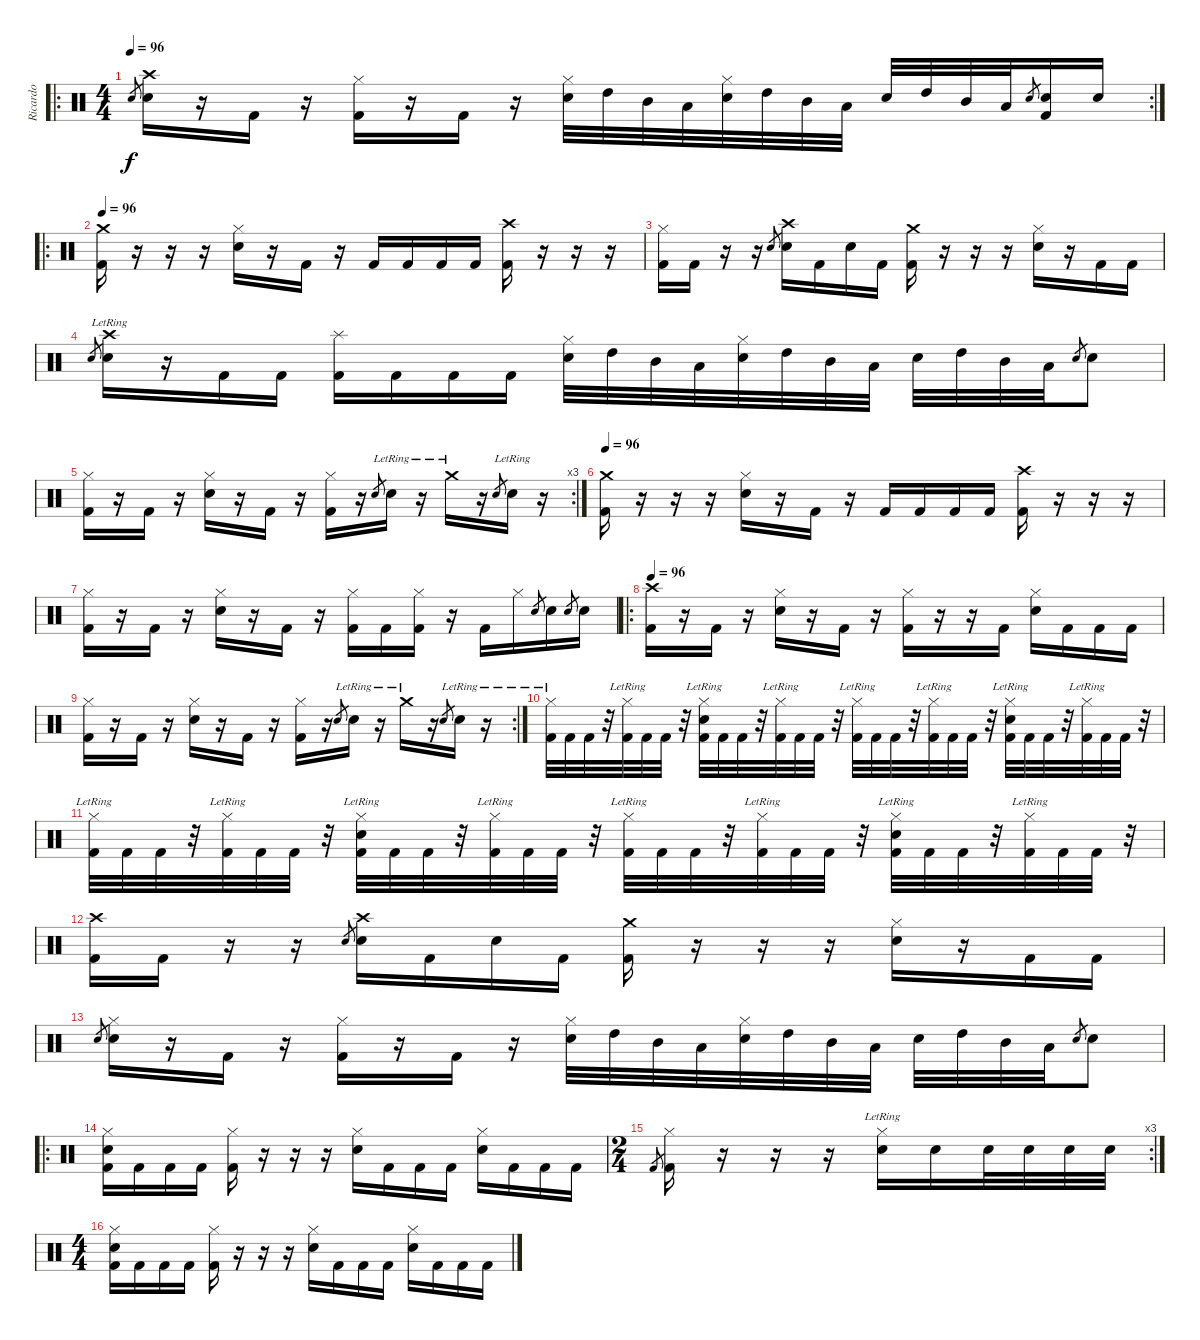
\track ("Ricardo" "Ricardo") {instrument percussion}
\staff {score}
\articulation defaults
\ro
\rc 2
\ts (4 4)
\tempo 96
\clef neutral
\ks c "Snare (hit) 2".8{gr dy f}
("Crash high (hit)" "Snare (hit) 2").16 r.16 "Kick (hit) 2".16 r.16 ("Hi-Hat (closed)" "Kick (hit) 2").16 r.16 "Kick (hit) 2".16 r.16 ("Hi-Hat (closed)" "Snare (hit) 2").32 "High Tom (hit)".32 "Mid Tom (hit)".32 "Low Tom (hit)".32 ("Hi-Hat (closed)" "Snare (hit) 2").32 "High Tom (hit)".32 "Mid Tom (hit)".32 "Low Tom (hit)".32 "Snare (hit) 2".32 "High Tom (hit)".32 "Mid Tom (hit)".32 "Low Tom (hit)".32 "Snare (hit) 2".8{gr} ("Snare (hit) 2" "Kick (hit) 2").16 "Snare (hit) 2".16 |
\ro
\tempo 96
("Crash medium (hit)" "Kick (hit) 2").16 r.16 r.16 r.16 ("Hi-Hat (closed)" "Snare (hit) 2").16 r.16 "Kick (hit) 2".16 r.16 "Kick (hit) 2".16 "Kick (hit) 2".16 "Kick (hit) 2".16 "Kick (hit) 2".16 ("Crash high (hit)" "Kick (hit) 2").16 r.16 r.16 r.16 |
("Hi-Hat (closed)" "Kick (hit) 2").16 "Kick (hit) 2".16 r.16 r.16 "Snare (hit) 2".8{gr} ("Crash high (hit)" "Snare (hit) 2").16 "Kick (hit) 2".16 "Snare (hit) 2".16 "Kick (hit) 2".16 ("Crash medium (hit)" "Kick (hit) 2").16 r.16 r.16 r.16 ("Hi-Hat (closed)" "Snare (hit) 2").16 r.16 "Kick (hit) 2".16 "Kick (hit) 2".16 |
"Snare (hit) 2".8{gr} ("Crash high (hit)"{lr} "Snare (hit) 2").16 r.16 "Kick (hit) 2".16 "Kick (hit) 2".16 ("Splash (hit)" "Kick (hit) 2").16 "Kick (hit) 2".16 "Kick (hit) 2".16 "Kick (hit) 2".16 ("Hi-Hat (closed)" "Snare (hit) 2").32 "High Tom (hit)".32 "Mid Tom (hit)".32 "Low Tom (hit)".32 ("Hi-Hat (closed)" "Snare (hit) 2").32 "High Tom (hit)".32 "Mid Tom (hit)".32 "Low Tom (hit)".32 "Snare (hit) 2".32 "High Tom (hit)".32 "Mid Tom (hit)".32 "Low Tom (hit)".32 "Snare (hit) 2".8{gr} "Snare (hit) 2".8 |
\rc 3
("Hi-Hat (closed)" "Kick (hit) 2").16 r.16 "Kick (hit) 2".16 r.16 ("Hi-Hat (closed)" "Snare (hit) 2").16 r.16 "Kick (hit) 2".16 r.16 ("Hi-Hat (closed)" "Kick (hit) 2").16 r.16 "Snare (hit) 2".8{gr} "Snare (hit) 2"{lr}.16 r.16 "Crash medium (hit)"{lr}.16 r.16 "Snare (hit) 2".8{gr} "Snare (hit) 2"{lr}.16 r.16 |
\tempo 96
("Crash medium (hit)" "Kick (hit) 2").16 r.16 r.16 r.16 ("Hi-Hat (closed)" "Snare (hit) 2").16 r.16 "Kick (hit) 2".16 r.16 "Kick (hit) 2".16 "Kick (hit) 2".16 "Kick (hit) 2".16 "Kick (hit) 2".16 ("Crash high (hit)" "Kick (hit) 2").16 r.16 r.16 r.16 |
("Hi-Hat (closed)" "Kick (hit) 2").16 r.16 "Kick (hit) 2".16 r.16 ("Hi-Hat (closed)" "Snare (hit) 2").16 r.16 "Kick (hit) 2".16 r.16 ("Hi-Hat (closed)" "Kick (hit) 2").16 "Kick (hit) 2".16 ("Hi-Hat (closed)" "Kick (hit) 2").16 r.16 "Kick (hit) 2".16 "Hi-Hat (closed)".16 "Snare (hit) 2".8{gr} "Snare (hit) 2".16 "Snare (hit) 2".8{gr} "Snare (hit) 2".16 |
\ro
\tempo 96
("Crash high (hit)" "Kick (hit) 2").16 r.16 "Kick (hit) 2".16 r.16 ("Hi-Hat (closed)" "Snare (hit) 2").16 r.16 "Kick (hit) 2".16 r.16 ("Hi-Hat (closed)" "Kick (hit) 2").16 r.16 r.16 "Kick (hit) 2".16 ("Hi-Hat (closed)" "Snare (hit) 2").16 "Kick (hit) 2".16 "Kick (hit) 2".16 "Kick (hit) 2".16 |
\rc 2
("Hi-Hat (closed)" "Kick (hit) 2").16 r.16 "Kick (hit) 2".16 r.16 ("Hi-Hat (closed)" "Snare (hit) 2").16 r.16 "Kick (hit) 2".16 r.16 ("Hi-Hat (closed)" "Kick (hit) 2").16 r.16 "Snare (hit) 2".8{gr} "Snare (hit) 2"{lr}.16 r.16 "Crash medium (hit)"{lr}.16 r.16 "Snare (hit) 2".8{gr} "Snare (hit) 2"{lr}.16 r.16 |
("Hi-Hat (closed)"{lr} "Kick (hit) 2").32 "Kick (hit) 2".32 "Kick (hit) 2".32 r.32 ("Hi-Hat (closed)"{lr} "Kick (hit) 2").32 "Kick (hit) 2".32 "Kick (hit) 2".32 r.32 ("Hi-Hat (closed)"{lr} "Snare (hit) 2"{lr} "Kick (hit) 2").32 "Kick (hit) 2".32 "Kick (hit) 2".32 r.32 ("Hi-Hat (closed)"{lr} "Kick (hit) 2").32 "Kick (hit) 2".32 "Kick (hit) 2".32 r.32 ("Hi-Hat (closed)"{lr} "Kick (hit) 2").32 "Kick (hit) 2".32 "Kick (hit) 2".32 r.32 ("Hi-Hat (closed)"{lr} "Kick (hit) 2").32 "Kick (hit) 2".32 "Kick (hit) 2".32 r.32 ("Hi-Hat (closed)"{lr} "Snare (hit) 2"{lr} "Kick (hit) 2").32 "Kick (hit) 2".32 "Kick (hit) 2".32 r.32 ("Hi-Hat (closed)"{lr} "Kick (hit) 2").32 "Kick (hit) 2".32 "Kick (hit) 2".32 r.32 |
("Hi-Hat (closed)"{lr} "Kick (hit) 2").32 "Kick (hit) 2".32 "Kick (hit) 2".32 r.32 ("Hi-Hat (closed)"{lr} "Kick (hit) 2").32 "Kick (hit) 2".32 "Kick (hit) 2".32 r.32 ("Hi-Hat (closed)"{lr} "Snare (hit) 2"{lr} "Kick (hit) 2").32 "Kick (hit) 2".32 "Kick (hit) 2".32 r.32 ("Hi-Hat (closed)"{lr} "Kick (hit) 2").32 "Kick (hit) 2".32 "Kick (hit) 2".32 r.32 ("Hi-Hat (closed)"{lr} "Kick (hit) 2").32 "Kick (hit) 2".32 "Kick (hit) 2".32 r.32 ("Hi-Hat (closed)"{lr} "Kick (hit) 2").32 "Kick (hit) 2".32 "Kick (hit) 2".32 r.32 ("Hi-Hat (closed)"{lr} "Snare (hit) 2"{lr} "Kick (hit) 2").32 "Kick (hit) 2".32 "Kick (hit) 2".32 r.32 ("Hi-Hat (closed)"{lr} "Kick (hit) 2").32 "Kick (hit) 2".32 "Kick (hit) 2".32 r.32 |
("Crash high (hit)" "Kick (hit) 2").16 "Kick (hit) 2".16 r.16 r.16 "Snare (hit) 2".8{gr} ("Crash high (hit)" "Snare (hit) 2").16 "Kick (hit) 2".16 "Snare (hit) 2".16 "Kick (hit) 2".16 ("Crash medium (hit)" "Kick (hit) 2").16 r.16 r.16 r.16 ("Hi-Hat (closed)" "Snare (hit) 2").16 r.16 "Kick (hit) 2".16 "Kick (hit) 2".16 |
"Snare (hit) 2".8{gr} ("Hi-Hat (closed)" "Snare (hit) 2").16 r.16 "Kick (hit) 2".16 r.16 ("Hi-Hat (closed)" "Kick (hit) 2").16 r.16 "Kick (hit) 2".16 r.16 ("Hi-Hat (closed)" "Snare (hit) 2").32 "High Tom (hit)".32 "Mid Tom (hit)".32 "Low Tom (hit)".32 ("Hi-Hat (closed)" "Snare (hit) 2").32 "High Tom (hit)".32 "Mid Tom (hit)".32 "Low Tom (hit)".32 "Snare (hit) 2".32 "High Tom (hit)".32 "Mid Tom (hit)".32 "Low Tom (hit)".32 "Snare (hit) 2".8{gr} "Snare (hit) 2".8 |
\ro
("Hi-Hat (closed)" "Snare (hit) 2" "Kick (hit) 2").16 "Kick (hit) 2".16 "Kick (hit) 2".16 "Kick (hit) 2".16 ("Hi-Hat (closed)" "Kick (hit) 2").16 r.16 r.16 r.16 ("Hi-Hat (closed)" "Snare (hit) 2").16 "Kick (hit) 2".16 "Kick (hit) 2".16 "Kick (hit) 2".16 ("Hi-Hat (closed)" "Snare (hit) 2").16 "Kick (hit) 2".16 "Kick (hit) 2".16 "Kick (hit) 2".16 |
\rc 3
\ts (2 4)
"Kick (hit) 2".8{gr} ("Hi-Hat (closed)" "Kick (hit) 2").16 r.16 r.16 r.16 ("Hi-Hat (closed)"{lr} "Snare (hit) 2").16 "Snare (hit) 2".16 "Snare (hit) 2".32 "Snare (hit) 2".32 "Snare (hit) 2".32 "Snare (hit) 2".32 |
\ts (4 4)
("Hi-Hat (closed)" "Snare (hit) 2" "Kick (hit) 2").16 "Kick (hit) 2".16 "Kick (hit) 2".16 "Kick (hit) 2".16 ("Hi-Hat (closed)" "Kick (hit) 2").16 r.16 r.16 r.16 ("Hi-Hat (closed)" "Snare (hit) 2").16 "Kick (hit) 2".16 "Kick (hit) 2".16 "Kick (hit) 2".16 ("Hi-Hat (closed)" "Snare (hit) 2").16 "Kick (hit) 2".16 "Kick (hit) 2".16 "Kick (hit) 2".16
